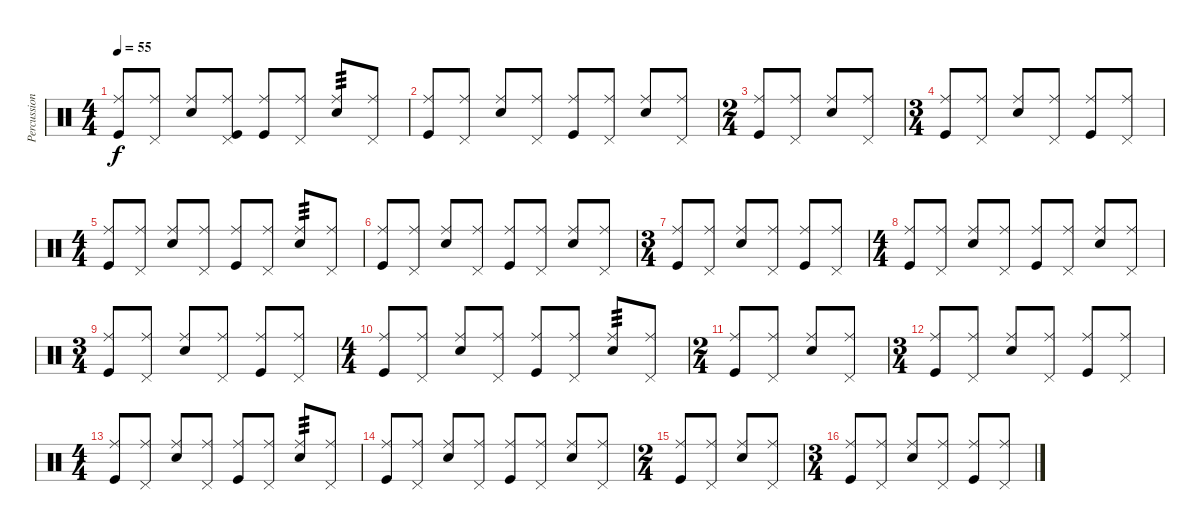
\track ("Percussion" "Percussion") {instrument percussion}
\staff {score}
\articulation defaults
\ts (4 4)
\tempo 55
\clef neutral
\ks c
("Ride (middle)" "Kick (hit)").8{dy f volume 9} ("Ride (middle)" "Pedal Hi-Hat (hit)").8 ("Ride (middle)" "Electric Snare (hit)").8 ("Ride (middle)" "Pedal Hi-Hat (hit)" "Kick (hit)").8 ("Ride (middle)" "Kick (hit)").8 ("Ride (middle)" "Pedal Hi-Hat (hit)").8 ("Ride (middle)" "Electric Snare (hit)").8{tp 3} ("Ride (middle)" "Pedal Hi-Hat (hit)").8 |
("Ride (middle)" "Kick (hit)").8{volume 9} ("Ride (middle)" "Pedal Hi-Hat (hit)").8 ("Ride (middle)" "Electric Snare (hit)").8 ("Ride (middle)" "Pedal Hi-Hat (hit)").8 ("Ride (middle)" "Kick (hit)").8 ("Ride (middle)" "Pedal Hi-Hat (hit)").8 ("Ride (middle)" "Electric Snare (hit)").8 ("Ride (middle)" "Pedal Hi-Hat (hit)").8 |
\ts (2 4)
("Ride (middle)" "Kick (hit)").8 ("Ride (middle)" "Pedal Hi-Hat (hit)").8 ("Ride (middle)" "Electric Snare (hit)").8 ("Ride (middle)" "Pedal Hi-Hat (hit)").8 |
\ts (3 4)
("Ride (middle)" "Kick (hit)").8 ("Ride (middle)" "Pedal Hi-Hat (hit)").8 ("Ride (middle)" "Electric Snare (hit)").8 ("Ride (middle)" "Pedal Hi-Hat (hit)").8 ("Ride (middle)" "Kick (hit)").8 ("Ride (middle)" "Pedal Hi-Hat (hit)").8 |
\ts (4 4)
("Ride (middle)" "Kick (hit)").8 ("Ride (middle)" "Pedal Hi-Hat (hit)").8 ("Ride (middle)" "Electric Snare (hit)").8 ("Ride (middle)" "Pedal Hi-Hat (hit)").8 ("Ride (middle)" "Kick (hit)").8 ("Ride (middle)" "Pedal Hi-Hat (hit)").8 ("Ride (middle)" "Electric Snare (hit)").8{tp 3} ("Ride (middle)" "Pedal Hi-Hat (hit)").8 |
("Ride (middle)" "Kick (hit)").8{volume 9} ("Ride (middle)" "Pedal Hi-Hat (hit)").8 ("Ride (middle)" "Electric Snare (hit)").8 ("Ride (middle)" "Pedal Hi-Hat (hit)").8 ("Ride (middle)" "Kick (hit)").8 ("Ride (middle)" "Pedal Hi-Hat (hit)").8 ("Ride (middle)" "Electric Snare (hit)").8 ("Ride (middle)" "Pedal Hi-Hat (hit)").8 |
\ts (3 4)
("Ride (middle)" "Kick (hit)").8 ("Ride (middle)" "Pedal Hi-Hat (hit)").8 ("Ride (middle)" "Electric Snare (hit)").8 ("Ride (middle)" "Pedal Hi-Hat (hit)").8 ("Ride (middle)" "Kick (hit)").8 ("Ride (middle)" "Pedal Hi-Hat (hit)").8 |
\ts (4 4)
("Ride (middle)" "Kick (hit)").8{volume 9} ("Ride (middle)" "Pedal Hi-Hat (hit)").8 ("Ride (middle)" "Electric Snare (hit)").8 ("Ride (middle)" "Pedal Hi-Hat (hit)").8 ("Ride (middle)" "Kick (hit)").8 ("Ride (middle)" "Pedal Hi-Hat (hit)").8 ("Ride (middle)" "Electric Snare (hit)").8 ("Ride (middle)" "Pedal Hi-Hat (hit)").8 |
\ts (3 4)
("Ride (middle)" "Kick (hit)").8 ("Ride (middle)" "Pedal Hi-Hat (hit)").8 ("Ride (middle)" "Electric Snare (hit)").8 ("Ride (middle)" "Pedal Hi-Hat (hit)").8 ("Ride (middle)" "Kick (hit)").8 ("Ride (middle)" "Pedal Hi-Hat (hit)").8 |
\ts (4 4)
("Ride (middle)" "Kick (hit)").8 ("Ride (middle)" "Pedal Hi-Hat (hit)").8 ("Ride (middle)" "Electric Snare (hit)").8 ("Ride (middle)" "Pedal Hi-Hat (hit)").8 ("Ride (middle)" "Kick (hit)").8 ("Ride (middle)" "Pedal Hi-Hat (hit)").8 ("Ride (middle)" "Electric Snare (hit)").8{tp 3} ("Ride (middle)" "Pedal Hi-Hat (hit)").8 |
\ts (2 4)
("Ride (middle)" "Kick (hit)").8 ("Ride (middle)" "Pedal Hi-Hat (hit)").8 ("Ride (middle)" "Electric Snare (hit)").8 ("Ride (middle)" "Pedal Hi-Hat (hit)").8 |
\ts (3 4)
("Ride (middle)" "Kick (hit)").8 ("Ride (middle)" "Pedal Hi-Hat (hit)").8 ("Ride (middle)" "Electric Snare (hit)").8 ("Ride (middle)" "Pedal Hi-Hat (hit)").8 ("Ride (middle)" "Kick (hit)").8 ("Ride (middle)" "Pedal Hi-Hat (hit)").8 |
\ts (4 4)
("Ride (middle)" "Kick (hit)").8 ("Ride (middle)" "Pedal Hi-Hat (hit)").8 ("Ride (middle)" "Electric Snare (hit)").8 ("Ride (middle)" "Pedal Hi-Hat (hit)").8 ("Ride (middle)" "Kick (hit)").8 ("Ride (middle)" "Pedal Hi-Hat (hit)").8 ("Ride (middle)" "Electric Snare (hit)").8{tp 3} ("Ride (middle)" "Pedal Hi-Hat (hit)").8 |
("Ride (middle)" "Kick (hit)").8{volume 9} ("Ride (middle)" "Pedal Hi-Hat (hit)").8 ("Ride (middle)" "Electric Snare (hit)").8 ("Ride (middle)" "Pedal Hi-Hat (hit)").8 ("Ride (middle)" "Kick (hit)").8 ("Ride (middle)" "Pedal Hi-Hat (hit)").8 ("Ride (middle)" "Electric Snare (hit)").8 ("Ride (middle)" "Pedal Hi-Hat (hit)").8 |
\ts (2 4)
("Ride (middle)" "Kick (hit)").8 ("Ride (middle)" "Pedal Hi-Hat (hit)").8 ("Ride (middle)" "Electric Snare (hit)").8 ("Ride (middle)" "Pedal Hi-Hat (hit)").8 |
\ts (3 4)
("Ride (middle)" "Kick (hit)").8 ("Ride (middle)" "Pedal Hi-Hat (hit)").8 ("Ride (middle)" "Electric Snare (hit)").8 ("Ride (middle)" "Pedal Hi-Hat (hit)").8 ("Ride (middle)" "Kick (hit)").8 ("Ride (middle)" "Pedal Hi-Hat (hit)").8
